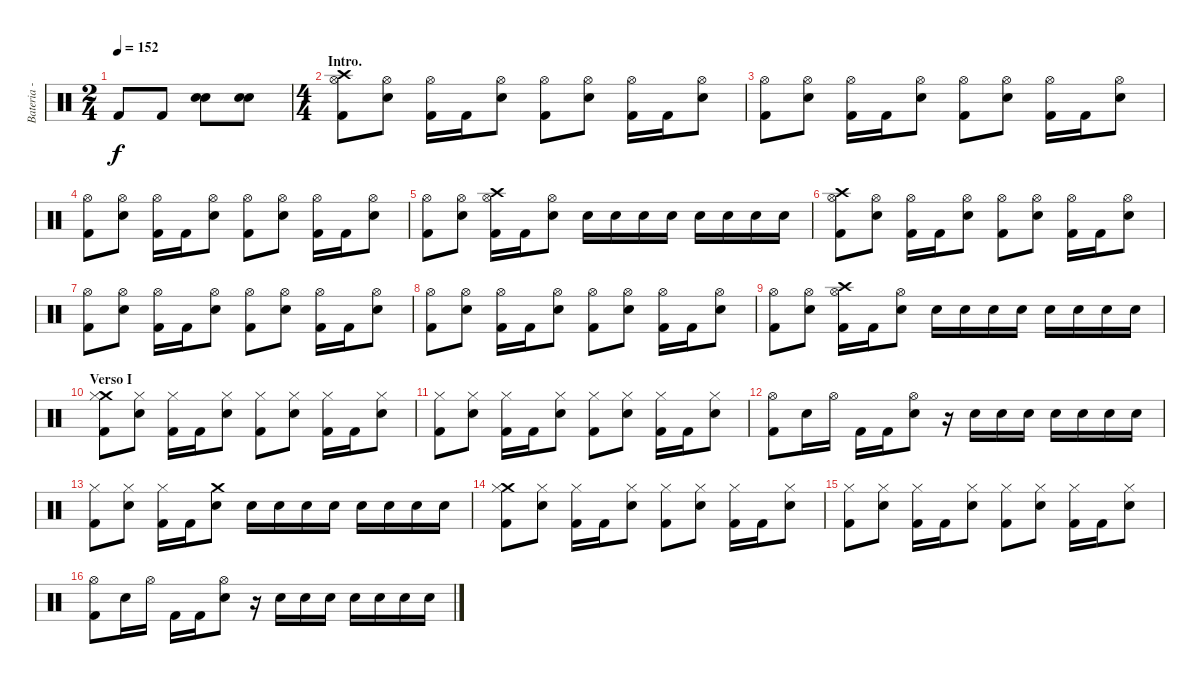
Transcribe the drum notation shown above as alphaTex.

\track ("Bateria - Larzon " "Bateria - ") {instrument percussion}
\staff {score}
\articulation defaults
\ts (2 4)
\tempo 152
\clef neutral
\ks c "Kick (hit) 2".8{dy f} "Kick (hit) 2".8
("Snare (hit) 2" "Electric Snare (hit)").8 ("Snare (hit) 2" "Electric Snare (hit)").8 |
\ts (4 4)
\section ("" "Intro.")
("Kick (hit) 2" "Crash high (hit)" "Hi-Hat (open)").8 ("Snare (hit) 2" "Hi-Hat (open)").8 ("Kick (hit) 2" "Hi-Hat (open)").16 "Kick (hit) 2".16 ("Snare (hit) 2" "Hi-Hat (open)").8 ("Kick (hit) 2" "Hi-Hat (open)").8 ("Snare (hit) 2" "Hi-Hat (open)").8 ("Kick (hit) 2" "Hi-Hat (open)").16 "Kick (hit) 2".16 ("Snare (hit) 2" "Hi-Hat (open)").8 |
("Kick (hit) 2" "Hi-Hat (open)").8 ("Snare (hit) 2" "Hi-Hat (open)").8 ("Kick (hit) 2" "Hi-Hat (open)").16 "Kick (hit) 2".16 ("Snare (hit) 2" "Hi-Hat (open)").8 ("Kick (hit) 2" "Hi-Hat (open)").8 ("Snare (hit) 2" "Hi-Hat (open)").8 ("Kick (hit) 2" "Hi-Hat (open)").16 "Kick (hit) 2".16 ("Snare (hit) 2" "Hi-Hat (open)").8 |
("Kick (hit) 2" "Hi-Hat (open)").8 ("Snare (hit) 2" "Hi-Hat (open)").8 ("Kick (hit) 2" "Hi-Hat (open)").16 "Kick (hit) 2".16 ("Snare (hit) 2" "Hi-Hat (open)").8 ("Kick (hit) 2" "Hi-Hat (open)").8 ("Snare (hit) 2" "Hi-Hat (open)").8 ("Kick (hit) 2" "Hi-Hat (open)").16 "Kick (hit) 2".16 ("Snare (hit) 2" "Hi-Hat (open)").8 |
("Kick (hit) 2" "Hi-Hat (open)").8 ("Snare (hit) 2" "Hi-Hat (open)").8 ("Kick (hit) 2" "Crash high (hit)" "Hi-Hat (open)").16 "Kick (hit) 2".16 ("Snare (hit) 2" "Hi-Hat (open)").8 "Snare (hit) 2".16 "Snare (hit) 2".16 "Snare (hit) 2".16 "Snare (hit) 2".16 "Snare (hit) 2".16 "Snare (hit) 2".16 "Snare (hit) 2".16 "Snare (hit) 2".16 |
("Kick (hit) 2" "Crash high (hit)" "Hi-Hat (open)").8 ("Snare (hit) 2" "Hi-Hat (open)").8 ("Kick (hit) 2" "Hi-Hat (open)").16 "Kick (hit) 2".16 ("Snare (hit) 2" "Hi-Hat (open)").8 ("Kick (hit) 2" "Hi-Hat (open)").8 ("Snare (hit) 2" "Hi-Hat (open)").8 ("Kick (hit) 2" "Hi-Hat (open)").16 "Kick (hit) 2".16 ("Snare (hit) 2" "Hi-Hat (open)").8 |
("Kick (hit) 2" "Hi-Hat (open)").8 ("Snare (hit) 2" "Hi-Hat (open)").8 ("Kick (hit) 2" "Hi-Hat (open)").16 "Kick (hit) 2".16 ("Snare (hit) 2" "Hi-Hat (open)").8 ("Kick (hit) 2" "Hi-Hat (open)").8 ("Snare (hit) 2" "Hi-Hat (open)").8 ("Kick (hit) 2" "Hi-Hat (open)").16 "Kick (hit) 2".16 ("Snare (hit) 2" "Hi-Hat (open)").8 |
("Kick (hit) 2" "Hi-Hat (open)").8 ("Snare (hit) 2" "Hi-Hat (open)").8 ("Kick (hit) 2" "Hi-Hat (open)").16 "Kick (hit) 2".16 ("Snare (hit) 2" "Hi-Hat (open)").8 ("Kick (hit) 2" "Hi-Hat (open)").8 ("Snare (hit) 2" "Hi-Hat (open)").8 ("Kick (hit) 2" "Hi-Hat (open)").16 "Kick (hit) 2".16 ("Snare (hit) 2" "Hi-Hat (open)").8 |
("Kick (hit) 2" "Hi-Hat (open)").8 ("Snare (hit) 2" "Hi-Hat (open)").8 ("Kick (hit) 2" "Crash high (hit)" "Hi-Hat (open)").16 "Kick (hit) 2".16 ("Snare (hit) 2" "Hi-Hat (open)").8 "Snare (hit) 2".16 "Snare (hit) 2".16 "Snare (hit) 2".16 "Snare (hit) 2".16 "Snare (hit) 2".16 "Snare (hit) 2".16 "Snare (hit) 2".16 "Snare (hit) 2".16 |
\section ("" "Verso I")
("Kick (hit) 2" "Crash medium (hit)" "Hi-Hat (closed)").8 ("Snare (hit) 2" "Hi-Hat (closed)").8 ("Kick (hit) 2" "Hi-Hat (closed)").16 "Kick (hit) 2".16 ("Snare (hit) 2" "Hi-Hat (closed)").8 ("Kick (hit) 2" "Hi-Hat (closed)").8 ("Snare (hit) 2" "Hi-Hat (closed)").8 ("Kick (hit) 2" "Hi-Hat (closed)").16 "Kick (hit) 2".16 ("Snare (hit) 2" "Hi-Hat (closed)").8 |
("Kick (hit) 2" "Hi-Hat (closed)").8 ("Snare (hit) 2" "Hi-Hat (closed)").8 ("Kick (hit) 2" "Hi-Hat (closed)").16 "Kick (hit) 2".16 ("Snare (hit) 2" "Hi-Hat (closed)").8 ("Kick (hit) 2" "Hi-Hat (closed)").8 ("Snare (hit) 2" "Hi-Hat (closed)").8 ("Kick (hit) 2" "Hi-Hat (closed)").16 "Kick (hit) 2".16 ("Snare (hit) 2" "Hi-Hat (closed)").8 |
("Kick (hit) 2" "Hi-Hat (open)").8 "Snare (hit) 2".16 "Hi-Hat (open)".16 "Kick (hit) 2".16 "Kick (hit) 2".16 ("Snare (hit) 2" "Hi-Hat (open)").8 r.16 "Snare (hit) 2".16 "Snare (hit) 2".16 "Snare (hit) 2".16 "Snare (hit) 2".16 "Snare (hit) 2".16 "Snare (hit) 2".16 "Snare (hit) 2".16 |
("Kick (hit) 2" "Hi-Hat (closed)").8 ("Snare (hit) 2" "Hi-Hat (closed)").8 ("Kick (hit) 2" "Hi-Hat (closed)").16 "Kick (hit) 2".16 ("Snare (hit) 2" "Crash medium (hit)").8 "Snare (hit) 2".16 "Snare (hit) 2".16 "Snare (hit) 2".16 "Snare (hit) 2".16 "Snare (hit) 2".16 "Snare (hit) 2".16 "Snare (hit) 2".16 "Snare (hit) 2".16 |
("Kick (hit) 2" "Crash medium (hit)" "Hi-Hat (closed)").8 ("Snare (hit) 2" "Hi-Hat (closed)").8 ("Kick (hit) 2" "Hi-Hat (closed)").16 "Kick (hit) 2".16 ("Snare (hit) 2" "Hi-Hat (closed)").8 ("Kick (hit) 2" "Hi-Hat (closed)").8 ("Snare (hit) 2" "Hi-Hat (closed)").8 ("Kick (hit) 2" "Hi-Hat (closed)").16 "Kick (hit) 2".16 ("Snare (hit) 2" "Hi-Hat (closed)").8 |
("Kick (hit) 2" "Hi-Hat (closed)").8 ("Snare (hit) 2" "Hi-Hat (closed)").8 ("Kick (hit) 2" "Hi-Hat (closed)").16 "Kick (hit) 2".16 ("Snare (hit) 2" "Hi-Hat (closed)").8 ("Kick (hit) 2" "Hi-Hat (closed)").8 ("Snare (hit) 2" "Hi-Hat (closed)").8 ("Kick (hit) 2" "Hi-Hat (closed)").16 "Kick (hit) 2".16 ("Snare (hit) 2" "Hi-Hat (closed)").8 |
("Kick (hit) 2" "Hi-Hat (open)").8 "Snare (hit) 2".16 "Hi-Hat (open)".16 "Kick (hit) 2".16 "Kick (hit) 2".16 ("Snare (hit) 2" "Hi-Hat (open)").8 r.16 "Snare (hit) 2".16 "Snare (hit) 2".16 "Snare (hit) 2".16 "Snare (hit) 2".16 "Snare (hit) 2".16 "Snare (hit) 2".16 "Snare (hit) 2".16
